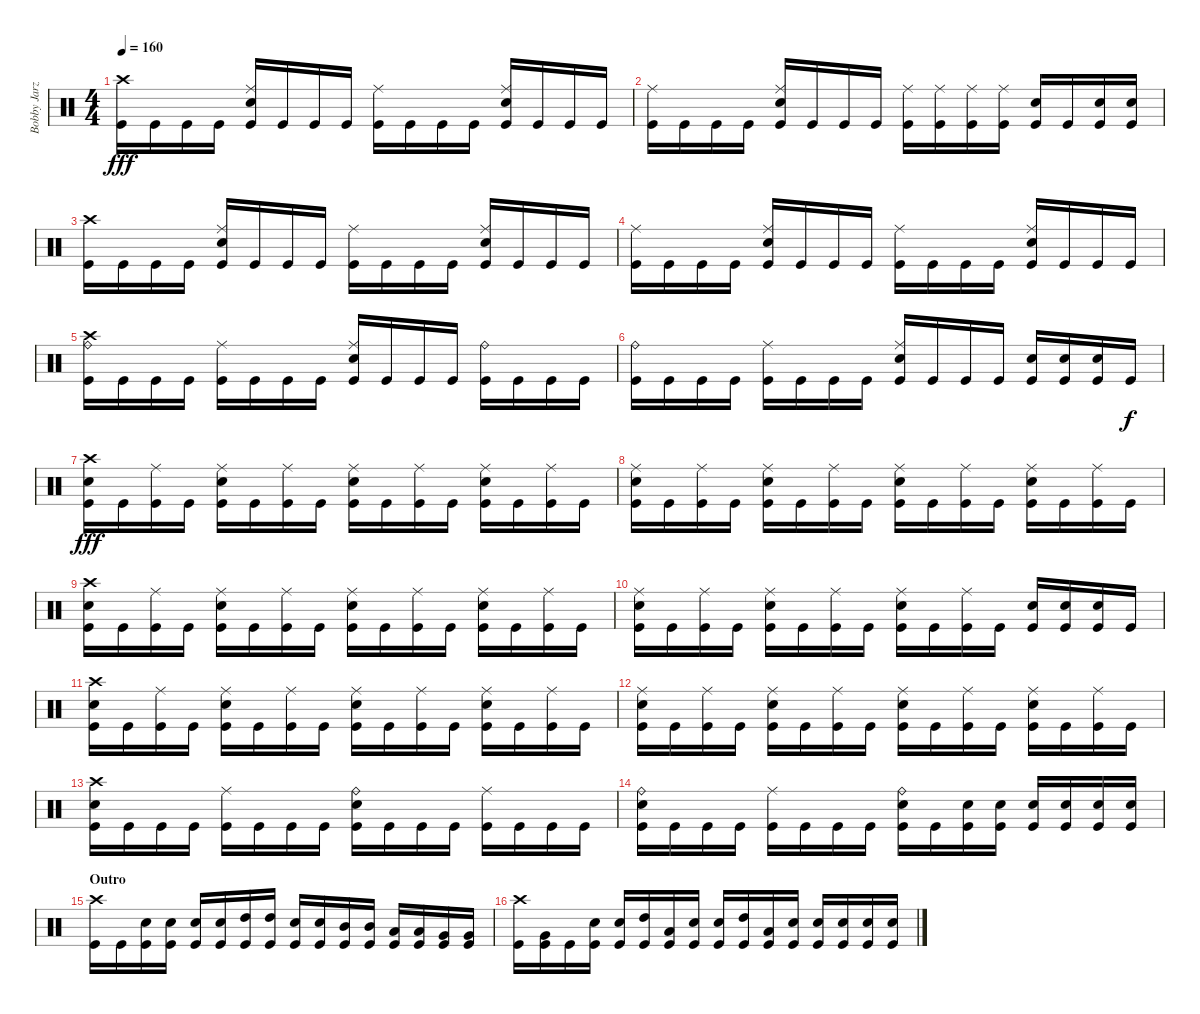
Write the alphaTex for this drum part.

\track ("Bobby Jarzombek" "Bobby Jarz") {instrument percussion}
\staff {score}
\articulation defaults
\ts (4 4)
\tempo 160
\clef neutral
\ks c
("Crash high (hit)" "Kick (hit)").16{dy fff} "Kick (hit)".16 "Kick (hit)".16 "Kick (hit)".16 ("Ride (middle)" "Electric Snare (hit)" "Kick (hit)").16 "Kick (hit)".16 "Kick (hit)".16 "Kick (hit)".16 ("Ride (middle)" "Kick (hit)").16 "Kick (hit)".16 "Kick (hit)".16 "Kick (hit)".16 ("Ride (middle)" "Electric Snare (hit)" "Kick (hit)").16 "Kick (hit)".16 "Kick (hit)".16 "Kick (hit)".16 |
("Ride (middle)" "Kick (hit)").16 "Kick (hit)".16 "Kick (hit)".16 "Kick (hit)".16 ("Ride (middle)" "Electric Snare (hit)" "Kick (hit)").16 "Kick (hit)".16 "Kick (hit)".16 "Kick (hit)".16 ("Ride (middle)" "Kick (hit)").16 ("Ride (middle)" "Kick (hit)").16 ("Ride (middle)" "Kick (hit)").16 ("Ride (middle)" "Kick (hit)").16 ("Electric Snare (hit)" "Kick (hit)").16 "Kick (hit)".16 ("Electric Snare (hit)" "Kick (hit)").16 ("Electric Snare (hit)" "Kick (hit)").16 |
("Crash high (hit)" "Kick (hit)").16 "Kick (hit)".16 "Kick (hit)".16 "Kick (hit)".16 ("Ride (middle)" "Electric Snare (hit)" "Kick (hit)").16 "Kick (hit)".16 "Kick (hit)".16 "Kick (hit)".16 ("Ride (middle)" "Kick (hit)").16 "Kick (hit)".16 "Kick (hit)".16 "Kick (hit)".16 ("Ride (middle)" "Electric Snare (hit)" "Kick (hit)").16 "Kick (hit)".16 "Kick (hit)".16 "Kick (hit)".16 |
("Ride (middle)" "Kick (hit)").16 "Kick (hit)".16 "Kick (hit)".16 "Kick (hit)".16 ("Ride (middle)" "Electric Snare (hit)" "Kick (hit)").16 "Kick (hit)".16 "Kick (hit)".16 "Kick (hit)".16 ("Ride (middle)" "Kick (hit)").16 "Kick (hit)".16 "Kick (hit)".16 "Kick (hit)".16 ("Ride (middle)" "Electric Snare (hit)" "Kick (hit)").16 "Kick (hit)".16 "Kick (hit)".16 "Kick (hit)".16 |
("Ride (bell)" "Crash high (hit)" "Kick (hit)").16 "Kick (hit)".16 "Kick (hit)".16 "Kick (hit)".16 ("Ride (middle)" "Kick (hit)").16 "Kick (hit)".16 "Kick (hit)".16 "Kick (hit)".16 ("Ride (middle)" "Electric Snare (hit)" "Kick (hit)").16 "Kick (hit)".16 "Kick (hit)".16 "Kick (hit)".16 ("Ride (bell)" "Kick (hit)").16 "Kick (hit)".16 "Kick (hit)".16 "Kick (hit)".16 |
("Ride (bell)" "Kick (hit)").16 "Kick (hit)".16 "Kick (hit)".16 "Kick (hit)".16 ("Ride (middle)" "Kick (hit)").16 "Kick (hit)".16 "Kick (hit)".16 "Kick (hit)".16 ("Ride (middle)" "Electric Snare (hit)" "Kick (hit)").16 "Kick (hit)".16 "Kick (hit)".16 "Kick (hit)".16 ("Electric Snare (hit)" "Kick (hit)").16 ("Electric Snare (hit)" "Kick (hit)").16 ("Electric Snare (hit)" "Kick (hit)").16 "Kick (hit)".16{dy f} |
("Crash high (hit)" "Electric Snare (hit)" "Kick (hit)").16{dy fff} "Kick (hit)".16 ("Ride (middle)" "Kick (hit)").16 "Kick (hit)".16 ("Ride (middle)" "Electric Snare (hit)" "Kick (hit)").16 "Kick (hit)".16 ("Ride (middle)" "Kick (hit)").16 "Kick (hit)".16 ("Ride (middle)" "Electric Snare (hit)" "Kick (hit)").16 "Kick (hit)".16 ("Ride (middle)" "Kick (hit)").16 "Kick (hit)".16 ("Ride (middle)" "Electric Snare (hit)" "Kick (hit)").16 "Kick (hit)".16 ("Ride (middle)" "Kick (hit)").16 "Kick (hit)".16 |
("Ride (middle)" "Electric Snare (hit)" "Kick (hit)").16 "Kick (hit)".16 ("Ride (middle)" "Kick (hit)").16 "Kick (hit)".16 ("Ride (middle)" "Electric Snare (hit)" "Kick (hit)").16 "Kick (hit)".16 ("Ride (middle)" "Kick (hit)").16 "Kick (hit)".16 ("Ride (middle)" "Electric Snare (hit)" "Kick (hit)").16 "Kick (hit)".16 ("Ride (middle)" "Kick (hit)").16 "Kick (hit)".16 ("Ride (middle)" "Electric Snare (hit)" "Kick (hit)").16 "Kick (hit)".16 ("Ride (middle)" "Kick (hit)").16 "Kick (hit)".16 |
("Crash high (hit)" "Electric Snare (hit)" "Kick (hit)").16 "Kick (hit)".16 ("Ride (middle)" "Kick (hit)").16 "Kick (hit)".16 ("Ride (middle)" "Electric Snare (hit)" "Kick (hit)").16 "Kick (hit)".16 ("Ride (middle)" "Kick (hit)").16 "Kick (hit)".16 ("Ride (middle)" "Electric Snare (hit)" "Kick (hit)").16 "Kick (hit)".16 ("Ride (middle)" "Kick (hit)").16 "Kick (hit)".16 ("Ride (middle)" "Electric Snare (hit)" "Kick (hit)").16 "Kick (hit)".16 ("Ride (middle)" "Kick (hit)").16 "Kick (hit)".16 |
("Ride (middle)" "Electric Snare (hit)" "Kick (hit)").16 "Kick (hit)".16 ("Ride (middle)" "Kick (hit)").16 "Kick (hit)".16 ("Ride (middle)" "Electric Snare (hit)" "Kick (hit)").16 "Kick (hit)".16 ("Ride (middle)" "Kick (hit)").16 "Kick (hit)".16 ("Ride (middle)" "Electric Snare (hit)" "Kick (hit)").16 "Kick (hit)".16 ("Ride (middle)" "Kick (hit)").16 "Kick (hit)".16 ("Electric Snare (hit)" "Kick (hit)").16 ("Electric Snare (hit)" "Kick (hit)").16 ("Electric Snare (hit)" "Kick (hit)").16 "Kick (hit)".16 |
("Crash high (hit)" "Electric Snare (hit)" "Kick (hit)").16 "Kick (hit)".16 ("Ride (middle)" "Kick (hit)").16 "Kick (hit)".16 ("Ride (middle)" "Electric Snare (hit)" "Kick (hit)").16 "Kick (hit)".16 ("Ride (middle)" "Kick (hit)").16 "Kick (hit)".16 ("Ride (middle)" "Electric Snare (hit)" "Kick (hit)").16 "Kick (hit)".16 ("Ride (middle)" "Kick (hit)").16 "Kick (hit)".16 ("Ride (middle)" "Electric Snare (hit)" "Kick (hit)").16 "Kick (hit)".16 ("Ride (middle)" "Kick (hit)").16 "Kick (hit)".16 |
("Ride (middle)" "Electric Snare (hit)" "Kick (hit)").16 "Kick (hit)".16 ("Ride (middle)" "Kick (hit)").16 "Kick (hit)".16 ("Ride (middle)" "Electric Snare (hit)" "Kick (hit)").16 "Kick (hit)".16 ("Ride (middle)" "Kick (hit)").16 "Kick (hit)".16 ("Ride (middle)" "Electric Snare (hit)" "Kick (hit)").16 "Kick (hit)".16 ("Ride (middle)" "Kick (hit)").16 "Kick (hit)".16 ("Ride (middle)" "Electric Snare (hit)" "Kick (hit)").16 "Kick (hit)".16 ("Ride (middle)" "Kick (hit)").16 "Kick (hit)".16 |
("Crash high (hit)" "Electric Snare (hit)" "Kick (hit)").16 "Kick (hit)".16 "Kick (hit)".16 "Kick (hit)".16 ("Ride (middle)" "Kick (hit)").16 "Kick (hit)".16 "Kick (hit)".16 "Kick (hit)".16 ("Ride (bell)" "Electric Snare (hit)" "Kick (hit)").16 "Kick (hit)".16 "Kick (hit)".16 "Kick (hit)".16 ("Ride (middle)" "Kick (hit)").16 "Kick (hit)".16 "Kick (hit)".16 "Kick (hit)".16 |
("Ride (bell)" "Electric Snare (hit)" "Kick (hit)").16 "Kick (hit)".16 "Kick (hit)".16 "Kick (hit)".16 ("Ride (middle)" "Kick (hit)").16 "Kick (hit)".16 "Kick (hit)".16 "Kick (hit)".16 ("Ride (bell)" "Electric Snare (hit)" "Kick (hit)").16 "Kick (hit)".16 ("Electric Snare (hit)" "Kick (hit)").16 ("Electric Snare (hit)" "Kick (hit)").16 ("Electric Snare (hit)" "Kick (hit)").16 ("Electric Snare (hit)" "Kick (hit)").16 ("Electric Snare (hit)" "Kick (hit)").16 ("Electric Snare (hit)" "Kick (hit)").16 |
\section ("" "Outro")
("Crash high (hit)" "Kick (hit)").16 "Kick (hit)".16 ("Electric Snare (hit)" "Kick (hit)").16 ("Electric Snare (hit)" "Kick (hit)").16 ("Electric Snare (hit)" "Kick (hit)").16 ("Electric Snare (hit)" "Kick (hit)").16 ("High Tom (hit)" "Kick (hit)").16 ("High Tom (hit)" "Kick (hit)").16 ("Electric Snare (hit)" "Kick (hit)").16 ("Electric Snare (hit)" "Kick (hit)").16 ("Mid Tom (hit)" "Kick (hit)").16 ("Mid Tom (hit)" "Kick (hit)").16 ("Low Tom (hit)" "Kick (hit)").16 ("Low Tom (hit)" "Kick (hit)").16 ("Very Low Tom (hit)" "Kick (hit)").16 ("Very Low Tom (hit)" "Kick (hit)").16 |
("Crash high (hit)" "Kick (hit)").16 ("Very Low Tom (hit)" "Kick (hit)").16 "Kick (hit)".16 ("Electric Snare (hit)" "Kick (hit)").16 ("Electric Snare (hit)" "Kick (hit)").16 ("High Tom (hit)" "Kick (hit)").16 ("Low Tom (hit)" "Kick (hit)").16 ("Electric Snare (hit)" "Kick (hit)").16 ("Electric Snare (hit)" "Kick (hit)").16 ("High Tom (hit)" "Kick (hit)").16 ("Low Tom (hit)" "Kick (hit)").16 ("Electric Snare (hit)" "Kick (hit)").16 ("Electric Snare (hit)" "Kick (hit)").16 ("Electric Snare (hit)" "Kick (hit)").16 ("Electric Snare (hit)" "Kick (hit)").16 ("Electric Snare (hit)" "Kick (hit)").16
